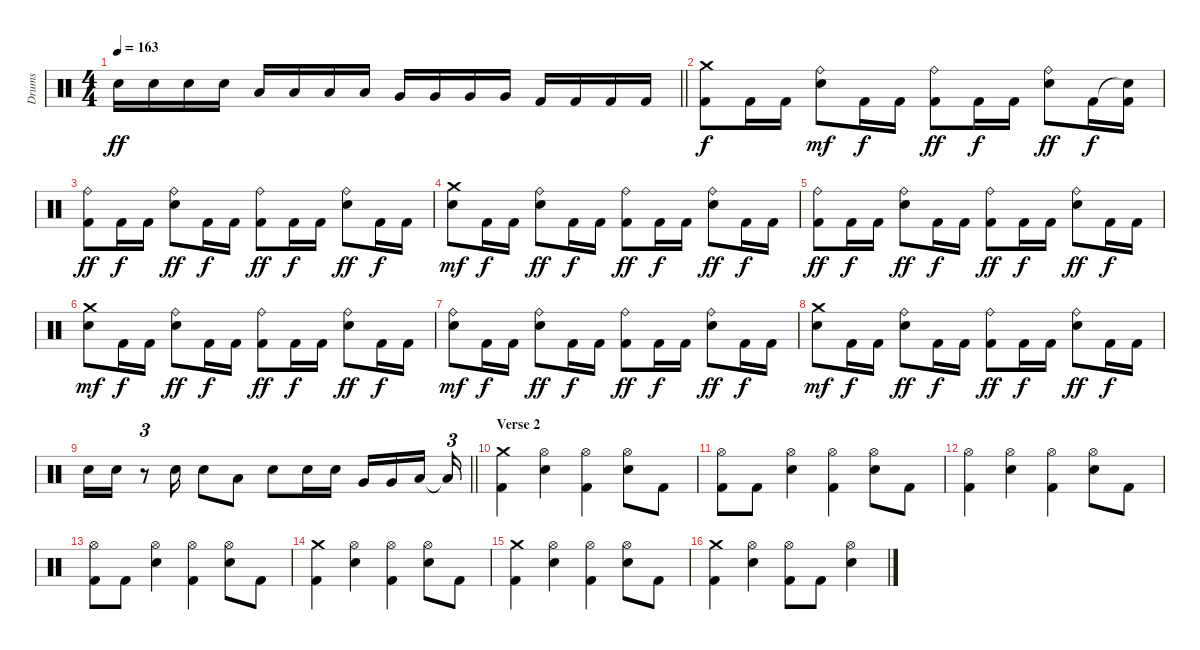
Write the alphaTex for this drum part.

\track ("Drums" "Drums") {instrument percussion}
\staff {score}
\articulation defaults
\ts (4 4)
\tempo 163
\clef neutral
\barLineRight lightlight
\ks c "Electric Snare (hit)".16{dy ff} "Electric Snare (hit)".16 "Electric Snare (hit)".16 "Electric Snare (hit)".16 "Low Tom (hit)".16 "Low Tom (hit)".16 "Low Tom (hit)".16 "Low Tom (hit)".16 "Very Low Tom (hit)".16 "Very Low Tom (hit)".16 "Very Low Tom (hit)".16 "Very Low Tom (hit)".16 "Kick (hit) 2".16 "Kick (hit) 2".16 "Kick (hit) 2".16 "Kick (hit) 2".16
|
("Crash medium (hit)" "Kick (hit) 2").8{dy f} "Kick (hit) 2".16 "Kick (hit) 2".16 ("Ride (bell)" "Electric Snare (hit)").8{dy mf} "Kick (hit) 2".16{dy f} "Kick (hit) 2".16 ("Ride (bell)" "Kick (hit) 2").8{dy ff} "Kick (hit) 2".16{dy f} "Kick (hit) 2".16 ("Ride (bell)" "Electric Snare (hit)").8{dy ff} "Kick (hit) 2".16{dy f} ("Snare (hit)"{t} "Kick (hit) 2").16 |
("Ride (bell)" "Kick (hit) 2").8{dy ff} "Kick (hit) 2".16{dy f} "Kick (hit) 2".16 ("Ride (bell)" "Electric Snare (hit)").8{dy ff} "Kick (hit) 2".16{dy f} "Kick (hit) 2".16 ("Ride (bell)" "Kick (hit) 2").8{dy ff} "Kick (hit) 2".16{dy f} "Kick (hit) 2".16 ("Ride (bell)" "Electric Snare (hit)").8{dy ff} "Kick (hit) 2".16{dy f} "Kick (hit) 2".16 |
("Crash medium (hit)" "Electric Snare (hit)").8{dy mf} "Kick (hit) 2".16{dy f} "Kick (hit) 2".16 ("Ride (bell)" "Electric Snare (hit)").8{dy ff} "Kick (hit) 2".16{dy f} "Kick (hit) 2".16 ("Ride (bell)" "Kick (hit) 2").8{dy ff} "Kick (hit) 2".16{dy f} "Kick (hit) 2".16 ("Ride (bell)" "Electric Snare (hit)").8{dy ff} "Kick (hit) 2".16{dy f} "Kick (hit) 2".16 |
("Ride (bell)" "Kick (hit) 2").8{dy ff} "Kick (hit) 2".16{dy f} "Kick (hit) 2".16 ("Ride (bell)" "Electric Snare (hit)").8{dy ff} "Kick (hit) 2".16{dy f} "Kick (hit) 2".16 ("Ride (bell)" "Kick (hit) 2").8{dy ff} "Kick (hit) 2".16{dy f} "Kick (hit) 2".16 ("Ride (bell)" "Electric Snare (hit)").8{dy ff} "Kick (hit) 2".16{dy f} "Kick (hit) 2".16 |
("Crash medium (hit)" "Electric Snare (hit)").8{dy mf} "Kick (hit) 2".16{dy f} "Kick (hit) 2".16 ("Ride (bell)" "Electric Snare (hit)").8{dy ff} "Kick (hit) 2".16{dy f} "Kick (hit) 2".16 ("Ride (bell)" "Kick (hit) 2").8{dy ff} "Kick (hit) 2".16{dy f} "Kick (hit) 2".16 ("Ride (bell)" "Electric Snare (hit)").8{dy ff} "Kick (hit) 2".16{dy f} "Kick (hit) 2".16 |
("Ride (bell)" "Electric Snare (hit)").8{dy mf} "Kick (hit) 2".16{dy f} "Kick (hit) 2".16 ("Ride (bell)" "Electric Snare (hit)").8{dy ff} "Kick (hit) 2".16{dy f} "Kick (hit) 2".16 ("Ride (bell)" "Kick (hit) 2").8{dy ff} "Kick (hit) 2".16{dy f} "Kick (hit) 2".16 ("Ride (bell)" "Electric Snare (hit)").8{dy ff} "Kick (hit) 2".16{dy f} "Kick (hit) 2".16 |
("Crash medium (hit)" "Electric Snare (hit)").8{dy mf} "Kick (hit) 2".16{dy f} "Kick (hit) 2".16 ("Ride (bell)" "Electric Snare (hit)").8{dy ff} "Kick (hit) 2".16{dy f} "Kick (hit) 2".16 ("Ride (bell)" "Kick (hit) 2").8{dy ff} "Kick (hit) 2".16{dy f} "Kick (hit) 2".16 ("Ride (bell)" "Electric Snare (hit)").8{dy ff} "Kick (hit) 2".16{dy f} "Kick (hit) 2".16 |
\barLineRight lightlight "Electric Snare (hit)".16 "Electric Snare (hit)".16
r.8{tu (3 2)} "Electric Snare (hit)".16 "Electric Snare (hit)".8 "Low Tom (hit)".8 "Electric Snare (hit)".8 "Electric Snare (hit)".16 "Electric Snare (hit)".16 "Very Low Tom (hit)".16 "Very Low Tom (hit)".16 "Low Floor Tom (hit)".16{beam splitsecondary} "Low Floor Tom (hit)"{t}.16{tu (3 2)} |
\section ("" "Verse 2")
("Crash medium (hit)" "Kick (hit) 2").4 ("Hi-Hat (open)" "Electric Snare (hit)").4 ("Hi-Hat (open)" "Kick (hit) 2").4 ("Hi-Hat (open)" "Electric Snare (hit)").8 "Kick (hit) 2".8 |
("Hi-Hat (open)" "Kick (hit) 2").8 "Kick (hit) 2".8 ("Hi-Hat (open)" "Electric Snare (hit)").4 ("Hi-Hat (open)" "Kick (hit) 2").4 ("Hi-Hat (open)" "Electric Snare (hit)").8 "Kick (hit) 2".8 |
("Hi-Hat (open)" "Kick (hit) 2").4 ("Hi-Hat (open)" "Electric Snare (hit)").4 ("Hi-Hat (open)" "Kick (hit) 2").4 ("Hi-Hat (open)" "Electric Snare (hit)").8 "Kick (hit) 2".8 |
("Hi-Hat (open)" "Kick (hit) 2").8 "Kick (hit) 2".8 ("Hi-Hat (open)" "Electric Snare (hit)").4 ("Hi-Hat (open)" "Kick (hit) 2").4 ("Hi-Hat (open)" "Electric Snare (hit)").8 "Kick (hit) 2".8 |
("Crash medium (hit)" "Kick (hit) 2").4 ("Hi-Hat (open)" "Electric Snare (hit)").4 ("Hi-Hat (open)" "Kick (hit) 2").4 ("Hi-Hat (open)" "Electric Snare (hit)").8 "Kick (hit) 2".8 |
("Crash medium (hit)" "Kick (hit) 2").4 ("Hi-Hat (open)" "Electric Snare (hit)").4 ("Hi-Hat (open)" "Kick (hit) 2").4 ("Hi-Hat (open)" "Electric Snare (hit)").8 "Kick (hit) 2".8 |
("Crash medium (hit)" "Kick (hit) 2").4 ("Hi-Hat (open)" "Electric Snare (hit)").4 ("Hi-Hat (open)" "Kick (hit) 2").8 "Kick (hit) 2".8 ("Hi-Hat (open)" "Electric Snare (hit)").4
